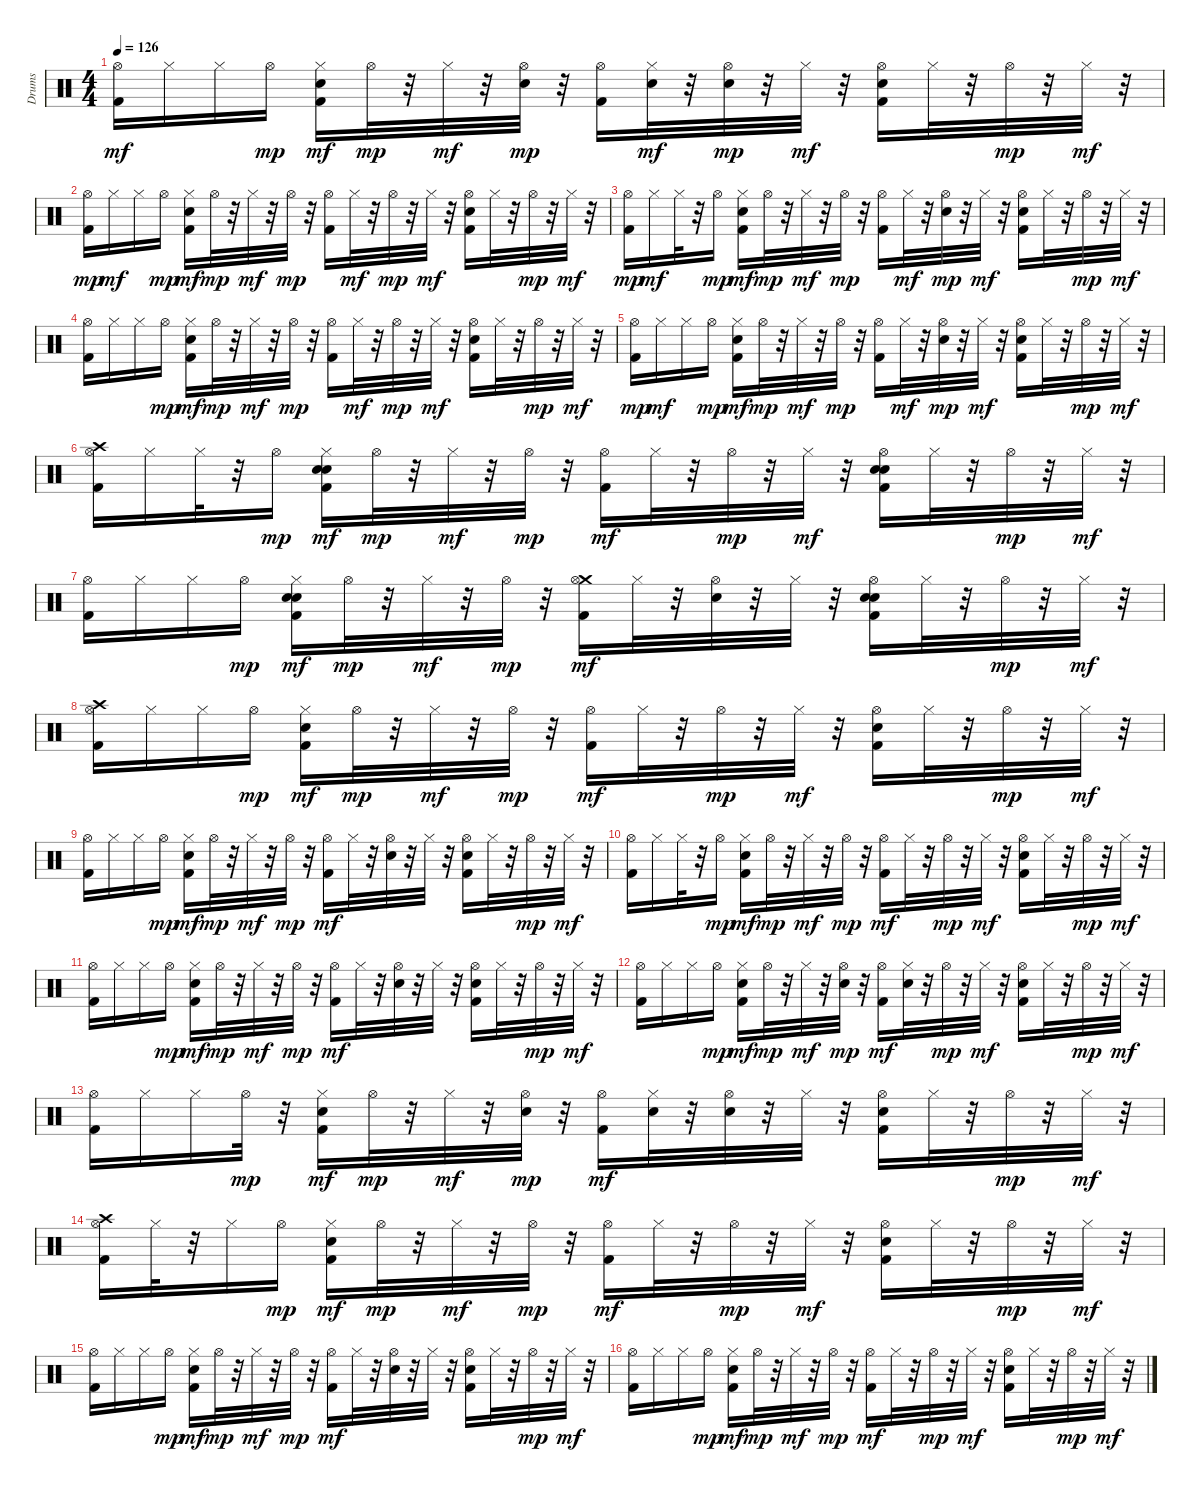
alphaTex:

\track ("Drums" "Drums") {instrument percussion}
\staff {score}
\articulation defaults
\ts (4 4)
\tempo 126
\clef neutral
\ks c
("Hi-Hat (open)" "Kick (hit) 2").16{dy mf} "Hi-Hat (closed)".16 "Hi-Hat (closed)".16 "Hi-Hat (open)".16{dy mp} ("Kick (hit) 2" "Hi-Hat (closed)" "Hand Clap (hit)").16{dy mf} "Hi-Hat (open)".32{dy mp} r.32 "Hi-Hat (closed)".32{dy mf} r.32 ("Snare (hit) 2" "Hi-Hat (open)").32{dy mp} r.32 ("Kick (hit) 2" "Hi-Hat (open)").16 ("Snare (hit) 2" "Hi-Hat (closed)").32{dy mf} r.32 ("Hand Clap (hit)" "Hi-Hat (open)").32{dy mp} r.32 "Hi-Hat (closed)".32{dy mf} r.32 ("Kick (hit) 2" "Hi-Hat (open)" "Hand Clap (hit)").16 "Hi-Hat (closed)".32 r.32 "Hi-Hat (open)".32{dy mp} r.32 "Hi-Hat (closed)".32{dy mf} r.32 |
("Kick (hit) 2" "Hi-Hat (open)").16{dy mp} "Hi-Hat (closed)".16{dy mf} "Hi-Hat (closed)".16 "Hi-Hat (open)".16{dy mp} ("Kick (hit) 2" "Hi-Hat (closed)" "Hand Clap (hit)").16{dy mf} "Hi-Hat (open)".32{dy mp} r.32 "Hi-Hat (closed)".32{dy mf} r.32 "Hi-Hat (open)".32{dy mp} r.32 ("Kick (hit) 2" "Hi-Hat (open)").16 "Hi-Hat (closed)".32{dy mf} r.32 "Hi-Hat (open)".32{dy mp} r.32 "Hi-Hat (closed)".32{dy mf} r.32 ("Kick (hit) 2" "Hi-Hat (open)" "Hand Clap (hit)").16 "Hi-Hat (closed)".32 r.32 "Hi-Hat (open)".32{dy mp} r.32 "Hi-Hat (closed)".32{dy mf} r.32 |
("Kick (hit) 2" "Hi-Hat (open)").16{dy mp} "Hi-Hat (closed)".16{dy mf} "Hi-Hat (closed)".32 r.32 "Hi-Hat (open)".16{dy mp} ("Kick (hit) 2" "Hi-Hat (closed)" "Hand Clap (hit)").16{dy mf} "Hi-Hat (open)".32{dy mp} r.32 "Hi-Hat (closed)".32{dy mf} r.32 "Hi-Hat (open)".32{dy mp} r.32 ("Kick (hit) 2" "Hi-Hat (open)").16 "Hi-Hat (closed)".32{dy mf} r.32 ("Hand Clap (hit)" "Hi-Hat (open)").32{dy mp} r.32 "Hi-Hat (closed)".32{dy mf} r.32 ("Kick (hit) 2" "Hi-Hat (open)" "Hand Clap (hit)").16 "Hi-Hat (closed)".32 r.32 "Hi-Hat (open)".32{dy mp} r.32 "Hi-Hat (closed)".32{dy mf} r.32 |
("Hi-Hat (open)" "Kick (hit) 2").16 "Hi-Hat (closed)".16 "Hi-Hat (closed)".16 "Hi-Hat (open)".16{dy mp} ("Kick (hit) 2" "Hi-Hat (closed)" "Hand Clap (hit)").16{dy mf} "Hi-Hat (open)".32{dy mp} r.32 "Hi-Hat (closed)".32{dy mf} r.32 "Hi-Hat (open)".32{dy mp} r.32 ("Kick (hit) 2" "Hi-Hat (open)").16 "Hi-Hat (closed)".32{dy mf} r.32 "Hi-Hat (open)".32{dy mp} r.32 "Hi-Hat (closed)".32{dy mf} r.32 ("Kick (hit) 2" "Hi-Hat (open)" "Hand Clap (hit)").16 "Hi-Hat (closed)".32 r.32 "Hi-Hat (open)".32{dy mp} r.32 "Hi-Hat (closed)".32{dy mf} r.32 |
("Kick (hit) 2" "Hi-Hat (open)").16{dy mp} "Hi-Hat (closed)".16{dy mf} "Hi-Hat (closed)".16 "Hi-Hat (open)".16{dy mp} ("Kick (hit) 2" "Hi-Hat (closed)" "Hand Clap (hit)").16{dy mf} "Hi-Hat (open)".32{dy mp} r.32 "Hi-Hat (closed)".32{dy mf} r.32 "Hi-Hat (open)".32{dy mp} r.32 ("Kick (hit) 2" "Hi-Hat (open)").16 "Hi-Hat (closed)".32{dy mf} r.32 ("Hand Clap (hit)" "Hi-Hat (open)").32{dy mp} r.32 "Hi-Hat (closed)".32{dy mf} r.32 ("Kick (hit) 2" "Hi-Hat (open)" "Hand Clap (hit)").16 "Hi-Hat (closed)".32 r.32 "Hi-Hat (open)".32{dy mp} r.32 "Hi-Hat (closed)".32{dy mf} r.32 |
("Hi-Hat (open)" "Crash high (hit)" "Kick (hit) 2").16 "Hi-Hat (closed)".16 "Hi-Hat (closed)".32 r.32 "Hi-Hat (open)".16{dy mp} ("Electric Snare (hit)" "Hi-Hat (closed)" "Hand Clap (hit)" "Kick (hit) 2").16{dy mf} "Hi-Hat (open)".32{dy mp} r.32 "Hi-Hat (closed)".32{dy mf} r.32 "Hi-Hat (open)".32{dy mp} r.32 ("Hi-Hat (open)" "Kick (hit) 2").16{dy mf} "Hi-Hat (closed)".32 r.32 "Hi-Hat (open)".32{dy mp} r.32 "Hi-Hat (closed)".32{dy mf} r.32 ("Electric Snare (hit)" "Hi-Hat (open)" "Hand Clap (hit)" "Kick (hit) 2").16 "Hi-Hat (closed)".32 r.32 "Hi-Hat (open)".32{dy mp} r.32 "Hi-Hat (closed)".32{dy mf} r.32 |
("Hi-Hat (open)" "Kick (hit) 2").16 "Hi-Hat (closed)".16 "Hi-Hat (closed)".16 "Hi-Hat (open)".16{dy mp} ("Electric Snare (hit)" "Hi-Hat (closed)" "Hand Clap (hit)" "Kick (hit) 2").16{dy mf} "Hi-Hat (open)".32{dy mp} r.32 "Hi-Hat (closed)".32{dy mf} r.32 "Hi-Hat (open)".32{dy mp} r.32 ("Crash medium (hit)" "Hi-Hat (open)" "Kick (hit) 2").16{dy mf} "Hi-Hat (closed)".32 r.32 ("Hi-Hat (open)" "Hand Clap (hit)").32 r.32 "Hi-Hat (closed)".32 r.32 ("Electric Snare (hit)" "Hi-Hat (open)" "Hand Clap (hit)" "Kick (hit) 2").16 "Hi-Hat (closed)".32 r.32 "Hi-Hat (open)".32{dy mp} r.32 "Hi-Hat (closed)".32{dy mf} r.32 |
("Crash high (hit)" "Hi-Hat (open)" "Kick (hit) 2").16 "Hi-Hat (closed)".16 "Hi-Hat (closed)".16 "Hi-Hat (open)".16{dy mp} ("Hi-Hat (closed)" "Hand Clap (hit)" "Kick (hit) 2").16{dy mf} "Hi-Hat (open)".32{dy mp} r.32 "Hi-Hat (closed)".32{dy mf} r.32 "Hi-Hat (open)".32{dy mp} r.32 ("Hi-Hat (open)" "Kick (hit) 2").16{dy mf} "Hi-Hat (closed)".32 r.32 "Hi-Hat (open)".32{dy mp} r.32 "Hi-Hat (closed)".32{dy mf} r.32 ("Hi-Hat (open)" "Hand Clap (hit)" "Kick (hit) 2").16 "Hi-Hat (closed)".32 r.32 "Hi-Hat (open)".32{dy mp} r.32 "Hi-Hat (closed)".32{dy mf} r.32 |
("Hi-Hat (open)" "Kick (hit) 2").16 "Hi-Hat (closed)".16 "Hi-Hat (closed)".16 "Hi-Hat (open)".16{dy mp} ("Hi-Hat (closed)" "Hand Clap (hit)" "Kick (hit) 2").16{dy mf} "Hi-Hat (open)".32{dy mp} r.32 "Hi-Hat (closed)".32{dy mf} r.32 "Hi-Hat (open)".32{dy mp} r.32 ("Hi-Hat (open)" "Kick (hit) 2").16{dy mf} "Hi-Hat (closed)".32 r.32 ("Hi-Hat (open)" "Hand Clap (hit)").32 r.32 "Hi-Hat (closed)".32 r.32 ("Hi-Hat (open)" "Hand Clap (hit)" "Kick (hit) 2").16 "Hi-Hat (closed)".32 r.32 "Hi-Hat (open)".32{dy mp} r.32 "Hi-Hat (closed)".32{dy mf} r.32 |
("Hi-Hat (open)" "Kick (hit) 2").16 "Hi-Hat (closed)".16 "Hi-Hat (closed)".32 r.32 "Hi-Hat (open)".16{dy mp} ("Hi-Hat (closed)" "Hand Clap (hit)" "Kick (hit) 2").16{dy mf} "Hi-Hat (open)".32{dy mp} r.32 "Hi-Hat (closed)".32{dy mf} r.32 "Hi-Hat (open)".32{dy mp} r.32 ("Hi-Hat (open)" "Kick (hit) 2").16{dy mf} "Hi-Hat (closed)".32 r.32 "Hi-Hat (open)".32{dy mp} r.32 "Hi-Hat (closed)".32{dy mf} r.32 ("Hi-Hat (open)" "Hand Clap (hit)" "Kick (hit) 2").16 "Hi-Hat (closed)".32 r.32 "Hi-Hat (open)".32{dy mp} r.32 "Hi-Hat (closed)".32{dy mf} r.32 |
("Hi-Hat (open)" "Kick (hit) 2").16 "Hi-Hat (closed)".16 "Hi-Hat (closed)".16 "Hi-Hat (open)".16{dy mp} ("Hi-Hat (closed)" "Hand Clap (hit)" "Kick (hit) 2").16{dy mf} "Hi-Hat (open)".32{dy mp} r.32 "Hi-Hat (closed)".32{dy mf} r.32 "Hi-Hat (open)".32{dy mp} r.32 ("Hi-Hat (open)" "Kick (hit) 2").16{dy mf} "Hi-Hat (closed)".32 r.32 ("Hi-Hat (open)" "Hand Clap (hit)").32 r.32 "Hi-Hat (closed)".32 r.32 ("Hi-Hat (open)" "Hand Clap (hit)" "Kick (hit) 2").16 "Hi-Hat (closed)".32 r.32 "Hi-Hat (open)".32{dy mp} r.32 "Hi-Hat (closed)".32{dy mf} r.32 |
("Hi-Hat (open)" "Kick (hit) 2").16 "Hi-Hat (closed)".16 "Hi-Hat (closed)".16 "Hi-Hat (open)".16{dy mp} ("Hi-Hat (closed)" "Hand Clap (hit)" "Kick (hit) 2").16{dy mf} "Hi-Hat (open)".32{dy mp} r.32 "Hi-Hat (closed)".32{dy mf} r.32 ("Snare (hit) 2" "Hi-Hat (open)").32{dy mp} r.32 ("Hi-Hat (open)" "Kick (hit) 2").16{dy mf} ("Snare (hit) 2" "Hi-Hat (closed)").32 r.32 "Hi-Hat (open)".32{dy mp} r.32 "Hi-Hat (closed)".32{dy mf} r.32 ("Hi-Hat (open)" "Hand Clap (hit)" "Kick (hit) 2").16 "Hi-Hat (closed)".32 r.32 "Hi-Hat (open)".32{dy mp} r.32 "Hi-Hat (closed)".32{dy mf} r.32 |
("Hi-Hat (open)" "Kick (hit) 2").16 "Hi-Hat (closed)".16 "Hi-Hat (closed)".16 "Hi-Hat (open)".32{dy mp} r.32 ("Hi-Hat (closed)" "Hand Clap (hit)" "Kick (hit) 2").16{dy mf} "Hi-Hat (open)".32{dy mp} r.32 "Hi-Hat (closed)".32{dy mf} r.32 ("Snare (hit) 2" "Hi-Hat (open)").32{dy mp} r.32 ("Hi-Hat (open)" "Kick (hit) 2").16{dy mf} ("Snare (hit) 2" "Hi-Hat (closed)").32 r.32 ("Hi-Hat (open)" "Hand Clap (hit)").32 r.32 "Hi-Hat (closed)".32 r.32 ("Hi-Hat (open)" "Hand Clap (hit)" "Kick (hit) 2").16 "Hi-Hat (closed)".32 r.32 "Hi-Hat (open)".32{dy mp} r.32 "Hi-Hat (closed)".32{dy mf} r.32 |
("Hi-Hat (open)" "Crash high (hit)" "Kick (hit) 2").16 "Hi-Hat (closed)".32 r.32 "Hi-Hat (closed)".16 "Hi-Hat (open)".16{dy mp} ("Hi-Hat (closed)" "Hand Clap (hit)" "Kick (hit) 2").16{dy mf} "Hi-Hat (open)".32{dy mp} r.32 "Hi-Hat (closed)".32{dy mf} r.32 "Hi-Hat (open)".32{dy mp} r.32 ("Hi-Hat (open)" "Kick (hit) 2").16{dy mf} "Hi-Hat (closed)".32 r.32 "Hi-Hat (open)".32{dy mp} r.32 "Hi-Hat (closed)".32{dy mf} r.32 ("Hi-Hat (open)" "Hand Clap (hit)" "Kick (hit) 2").16 "Hi-Hat (closed)".32 r.32 "Hi-Hat (open)".32{dy mp} r.32 "Hi-Hat (closed)".32{dy mf} r.32 |
("Hi-Hat (open)" "Kick (hit) 2").16 "Hi-Hat (closed)".16 "Hi-Hat (closed)".16 "Hi-Hat (open)".16{dy mp} ("Hi-Hat (closed)" "Hand Clap (hit)" "Kick (hit) 2").16{dy mf} "Hi-Hat (open)".32{dy mp} r.32 "Hi-Hat (closed)".32{dy mf} r.32 "Hi-Hat (open)".32{dy mp} r.32 ("Hi-Hat (open)" "Kick (hit) 2").16{dy mf} "Hi-Hat (closed)".32 r.32 ("Hi-Hat (open)" "Hand Clap (hit)").32 r.32 "Hi-Hat (closed)".32 r.32 ("Hi-Hat (open)" "Hand Clap (hit)" "Kick (hit) 2").16 "Hi-Hat (closed)".32 r.32 "Hi-Hat (open)".32{dy mp} r.32 "Hi-Hat (closed)".32{dy mf} r.32 |
("Hi-Hat (open)" "Kick (hit) 2").16 "Hi-Hat (closed)".16 "Hi-Hat (closed)".16 "Hi-Hat (open)".16{dy mp} ("Hi-Hat (closed)" "Hand Clap (hit)" "Kick (hit) 2").16{dy mf} "Hi-Hat (open)".32{dy mp} r.32 "Hi-Hat (closed)".32{dy mf} r.32 "Hi-Hat (open)".32{dy mp} r.32 ("Hi-Hat (open)" "Kick (hit) 2").16{dy mf} "Hi-Hat (closed)".32 r.32 "Hi-Hat (open)".32{dy mp} r.32 "Hi-Hat (closed)".32{dy mf} r.32 ("Hi-Hat (open)" "Hand Clap (hit)" "Kick (hit) 2").16 "Hi-Hat (closed)".32 r.32 "Hi-Hat (open)".32{dy mp} r.32 "Hi-Hat (closed)".32{dy mf} r.32
